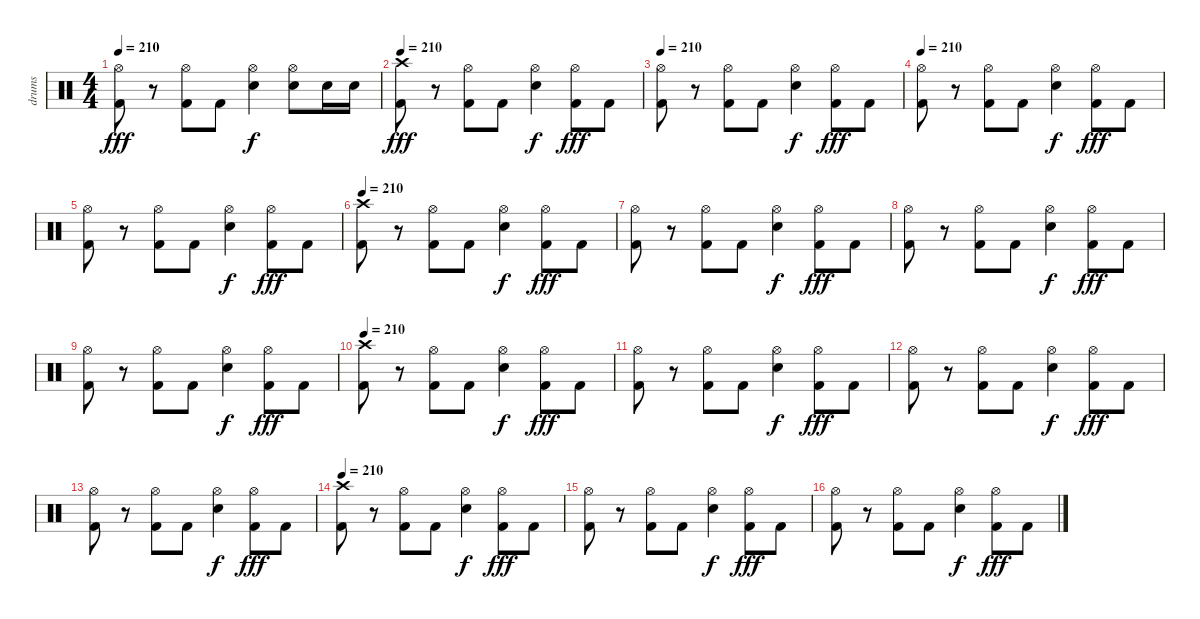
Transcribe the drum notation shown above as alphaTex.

\track ("drums" "drums") {instrument percussion}
\staff {score}
\articulation defaults
\ts (4 4)
\tempo 210
\clef neutral
\ks c
("Hi-Hat (open)" "Kick (hit) 2").8{dy fff} r.8 ("Hi-Hat (open)" "Kick (hit) 2").8 "Kick (hit) 2".8 ("Hi-Hat (open)" "Snare (hit) 2").4{dy f} ("Hi-Hat (open)" "Snare (hit) 2").8 "Snare (hit) 2".16 "Snare (hit) 2".16 |
\tempo 210
("Crash high (hit)" "Kick (hit) 2").8{dy fff} r.8 ("Hi-Hat (open)" "Kick (hit) 2").8 "Kick (hit) 2".8 ("Hi-Hat (open)" "Snare (hit) 2").4{dy f} ("Hi-Hat (open)" "Kick (hit) 2").8{dy fff} "Kick (hit) 2".8 |
\tempo 210
("Hi-Hat (open)" "Kick (hit) 2").8 r.8 ("Hi-Hat (open)" "Kick (hit) 2").8 "Kick (hit) 2".8 ("Hi-Hat (open)" "Snare (hit) 2").4{dy f} ("Hi-Hat (open)" "Kick (hit) 2").8{dy fff} "Kick (hit) 2".8 |
\tempo 210
("Hi-Hat (open)" "Kick (hit) 2").8 r.8 ("Hi-Hat (open)" "Kick (hit) 2").8 "Kick (hit) 2".8 ("Hi-Hat (open)" "Snare (hit) 2").4{dy f} ("Hi-Hat (open)" "Kick (hit) 2").8{dy fff} "Kick (hit) 2".8 |
("Hi-Hat (open)" "Kick (hit) 2").8 r.8 ("Hi-Hat (open)" "Kick (hit) 2").8 "Kick (hit) 2".8 ("Hi-Hat (open)" "Snare (hit) 2").4{dy f} ("Hi-Hat (open)" "Kick (hit) 2").8{dy fff} "Kick (hit) 2".8 |
\tempo 210
("Crash high (hit)" "Kick (hit) 2").8 r.8 ("Hi-Hat (open)" "Kick (hit) 2").8 "Kick (hit) 2".8 ("Hi-Hat (open)" "Snare (hit) 2").4{dy f} ("Hi-Hat (open)" "Kick (hit) 2").8{dy fff} "Kick (hit) 2".8 |
("Hi-Hat (open)" "Kick (hit) 2").8 r.8 ("Hi-Hat (open)" "Kick (hit) 2").8 "Kick (hit) 2".8 ("Hi-Hat (open)" "Snare (hit) 2").4{dy f} ("Hi-Hat (open)" "Kick (hit) 2").8{dy fff} "Kick (hit) 2".8 |
("Hi-Hat (open)" "Kick (hit) 2").8 r.8 ("Hi-Hat (open)" "Kick (hit) 2").8 "Kick (hit) 2".8 ("Hi-Hat (open)" "Snare (hit) 2").4{dy f} ("Hi-Hat (open)" "Kick (hit) 2").8{dy fff} "Kick (hit) 2".8 |
("Hi-Hat (open)" "Kick (hit) 2").8 r.8 ("Hi-Hat (open)" "Kick (hit) 2").8 "Kick (hit) 2".8 ("Hi-Hat (open)" "Snare (hit) 2").4{dy f} ("Hi-Hat (open)" "Kick (hit) 2").8{dy fff} "Kick (hit) 2".8 |
\tempo 210
("Crash high (hit)" "Kick (hit) 2").8 r.8 ("Hi-Hat (open)" "Kick (hit) 2").8 "Kick (hit) 2".8 ("Hi-Hat (open)" "Snare (hit) 2").4{dy f} ("Hi-Hat (open)" "Kick (hit) 2").8{dy fff} "Kick (hit) 2".8 |
("Hi-Hat (open)" "Kick (hit) 2").8 r.8 ("Hi-Hat (open)" "Kick (hit) 2").8 "Kick (hit) 2".8 ("Hi-Hat (open)" "Snare (hit) 2").4{dy f} ("Hi-Hat (open)" "Kick (hit) 2").8{dy fff} "Kick (hit) 2".8 |
("Hi-Hat (open)" "Kick (hit) 2").8 r.8 ("Hi-Hat (open)" "Kick (hit) 2").8 "Kick (hit) 2".8 ("Hi-Hat (open)" "Snare (hit) 2").4{dy f} ("Hi-Hat (open)" "Kick (hit) 2").8{dy fff} "Kick (hit) 2".8 |
("Hi-Hat (open)" "Kick (hit) 2").8 r.8 ("Hi-Hat (open)" "Kick (hit) 2").8 "Kick (hit) 2".8 ("Hi-Hat (open)" "Snare (hit) 2").4{dy f} ("Hi-Hat (open)" "Kick (hit) 2").8{dy fff} "Kick (hit) 2".8 |
\tempo 210
("Crash high (hit)" "Kick (hit) 2").8 r.8 ("Hi-Hat (open)" "Kick (hit) 2").8 "Kick (hit) 2".8 ("Hi-Hat (open)" "Snare (hit) 2").4{dy f} ("Hi-Hat (open)" "Kick (hit) 2").8{dy fff} "Kick (hit) 2".8 |
("Hi-Hat (open)" "Kick (hit) 2").8 r.8 ("Hi-Hat (open)" "Kick (hit) 2").8 "Kick (hit) 2".8 ("Hi-Hat (open)" "Snare (hit) 2").4{dy f} ("Hi-Hat (open)" "Kick (hit) 2").8{dy fff} "Kick (hit) 2".8 |
("Hi-Hat (open)" "Kick (hit) 2").8 r.8 ("Hi-Hat (open)" "Kick (hit) 2").8 "Kick (hit) 2".8 ("Hi-Hat (open)" "Snare (hit) 2").4{dy f} ("Hi-Hat (open)" "Kick (hit) 2").8{dy fff} "Kick (hit) 2".8
